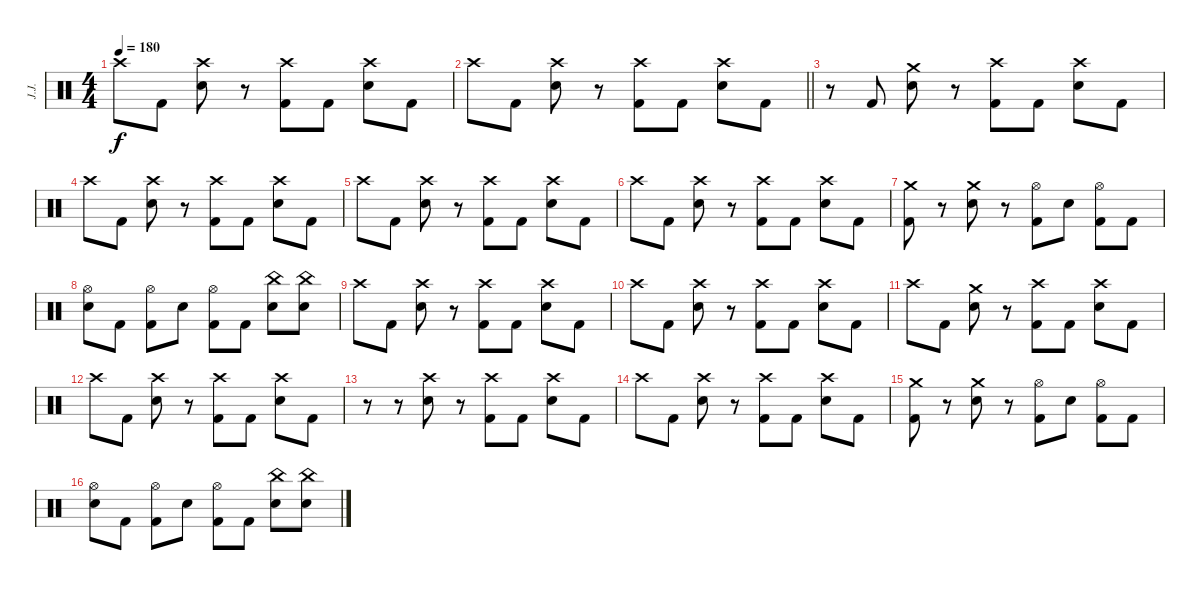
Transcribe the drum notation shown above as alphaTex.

\track ("J.J." "J.J.") {instrument percussion}
\staff {score}
\articulation defaults
\ts (4 4)
\tempo 180
\clef neutral
\ks c "Crash high (hit)".8{dy f} "Kick (hit) 2".8
("Crash high (hit)" "Electric Snare (hit)").8 r.8 ("Crash high (hit)" "Kick (hit) 2").8 "Kick (hit) 2".8 ("Crash high (hit)" "Electric Snare (hit)").8 "Kick (hit) 2".8 |
\barLineRight lightlight "Crash high (hit)".8 "Kick (hit) 2".8
("Crash high (hit)" "Electric Snare (hit)").8 r.8 ("Crash high (hit)" "Kick (hit) 2").8 "Kick (hit) 2".8 ("Crash high (hit)" "Electric Snare (hit)").8 "Kick (hit) 2".8 |
r.8 "Kick (hit) 2".8 ("Crash medium (hit)" "Electric Snare (hit)").8 r.8 ("Crash high (hit)" "Kick (hit) 2").8 "Kick (hit) 2".8 ("Crash high (hit)" "Electric Snare (hit)").8 "Kick (hit) 2".8 |
"Crash high (hit)".8 "Kick (hit) 2".8 ("Crash high (hit)" "Electric Snare (hit)").8 r.8 ("Crash high (hit)" "Kick (hit) 2").8 "Kick (hit) 2".8 ("Crash high (hit)" "Electric Snare (hit)").8 "Kick (hit) 2".8 |
"Crash high (hit)".8 "Kick (hit) 2".8 ("Crash high (hit)" "Electric Snare (hit)").8 r.8 ("Crash high (hit)" "Kick (hit) 2").8 "Kick (hit) 2".8 ("Crash high (hit)" "Electric Snare (hit)").8 "Kick (hit) 2".8 |
"Crash high (hit)".8 "Kick (hit) 2".8 ("Crash high (hit)" "Electric Snare (hit)").8 r.8 ("Crash high (hit)" "Kick (hit) 2").8 "Kick (hit) 2".8 ("Crash high (hit)" "Electric Snare (hit)").8 "Kick (hit) 2".8 |
("Crash medium (hit)" "Kick (hit) 2").8 r.8 ("Crash medium (hit)" "Electric Snare (hit)").8 r.8 ("Hi-Hat (open)" "Kick (hit) 2").8 "Electric Snare (hit)".8 ("Hi-Hat (open)" "Kick (hit) 2").8 "Kick (hit) 2".8 |
("Hi-Hat (open)" "Electric Snare (hit)").8 "Kick (hit) 2".8 ("Hi-Hat (open)" "Kick (hit) 2").8 "Electric Snare (hit)".8 ("Hi-Hat (open)" "Kick (hit) 2").8 "Kick (hit) 2".8 ("China (hit)" "Electric Snare (hit)").8 ("China (hit)" "Electric Snare (hit)").8 |
"Crash high (hit)".8 "Kick (hit) 2".8 ("Crash high (hit)" "Electric Snare (hit)").8 r.8 ("Crash high (hit)" "Kick (hit) 2").8 "Kick (hit) 2".8 ("Crash high (hit)" "Electric Snare (hit)").8 "Kick (hit) 2".8 |
"Crash high (hit)".8 "Kick (hit) 2".8 ("Crash high (hit)" "Electric Snare (hit)").8 r.8 ("Crash high (hit)" "Kick (hit) 2").8 "Kick (hit) 2".8 ("Crash high (hit)" "Electric Snare (hit)").8 "Kick (hit) 2".8 |
"Crash high (hit)".8 "Kick (hit) 2".8 ("Crash medium (hit)" "Electric Snare (hit)").8 r.8 ("Crash high (hit)" "Kick (hit) 2").8 "Kick (hit) 2".8 ("Crash high (hit)" "Electric Snare (hit)").8 "Kick (hit) 2".8 |
"Crash high (hit)".8 "Kick (hit) 2".8 ("Crash high (hit)" "Electric Snare (hit)").8 r.8 ("Crash high (hit)" "Kick (hit) 2").8 "Kick (hit) 2".8 ("Crash high (hit)" "Electric Snare (hit)").8 "Kick (hit) 2".8 |
r.8 r.8 ("Crash high (hit)" "Electric Snare (hit)").8 r.8 ("Crash high (hit)" "Kick (hit) 2").8 "Kick (hit) 2".8 ("Crash high (hit)" "Electric Snare (hit)").8 "Kick (hit) 2".8 |
"Crash high (hit)".8 "Kick (hit) 2".8 ("Crash high (hit)" "Electric Snare (hit)").8 r.8 ("Crash high (hit)" "Kick (hit) 2").8 "Kick (hit) 2".8 ("Crash high (hit)" "Electric Snare (hit)").8 "Kick (hit) 2".8 |
("Crash medium (hit)" "Kick (hit) 2").8 r.8 ("Crash medium (hit)" "Electric Snare (hit)").8 r.8 ("Hi-Hat (open)" "Kick (hit) 2").8 "Electric Snare (hit)".8 ("Hi-Hat (open)" "Kick (hit) 2").8 "Kick (hit) 2".8 |
("Hi-Hat (open)" "Electric Snare (hit)").8 "Kick (hit) 2".8 ("Hi-Hat (open)" "Kick (hit) 2").8 "Electric Snare (hit)".8 ("Hi-Hat (open)" "Kick (hit) 2").8 "Kick (hit) 2".8 ("China (hit)" "Electric Snare (hit)").8 ("China (hit)" "Electric Snare (hit)").8
